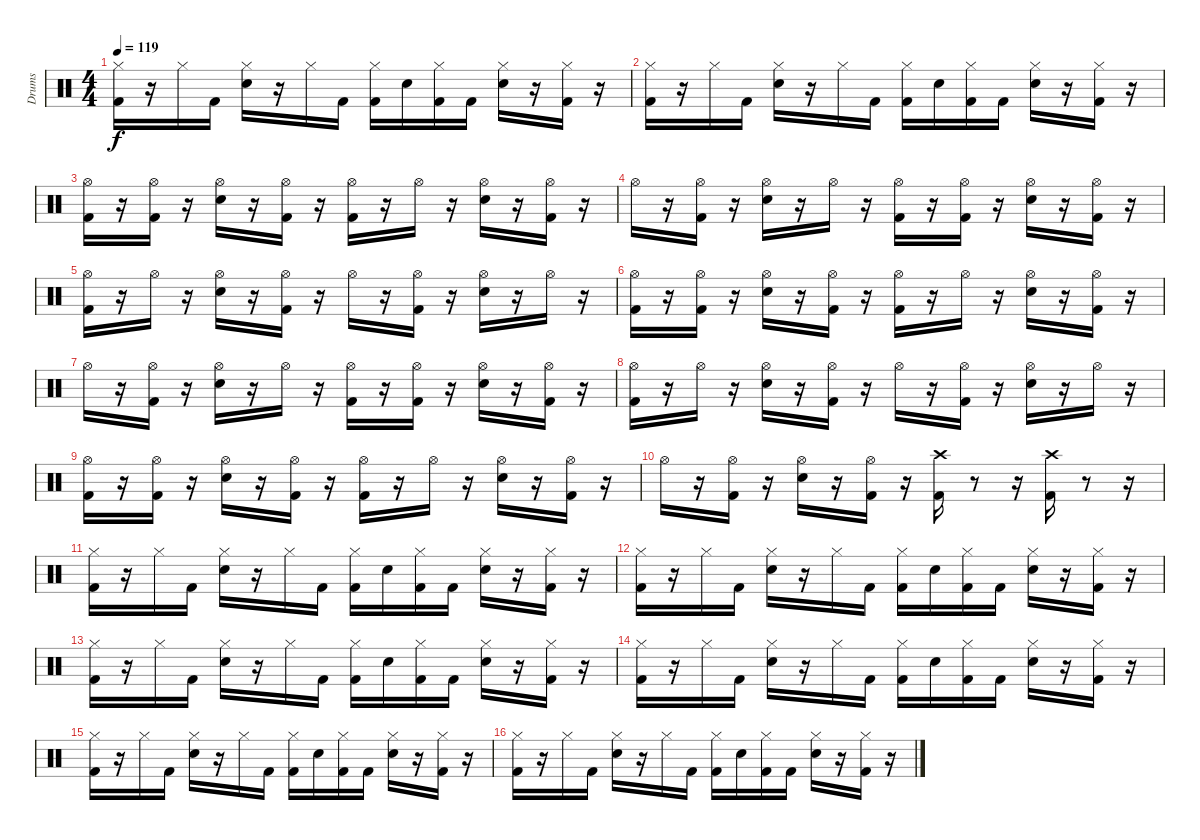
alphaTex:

\track ("Drums" "Drums") {instrument percussion}
\staff {score}
\articulation defaults
\ts (4 4)
\tempo 119
\clef neutral
\ks c
("Kick (hit) 2" "Hi-Hat (closed)").16{dy f} r.16 "Hi-Hat (closed)".16 "Kick (hit) 2".16 ("Snare (hit) 2" "Hi-Hat (closed)").16 r.16 "Hi-Hat (closed)".16 "Kick (hit) 2".16 ("Kick (hit) 2" "Hi-Hat (closed)").16 "Snare (hit) 2".16 ("Kick (hit) 2" "Hi-Hat (closed)").16 "Kick (hit) 2".16 ("Snare (hit) 2" "Hi-Hat (closed)").16 r.16 ("Kick (hit) 2" "Hi-Hat (closed)").16 r.16 |
("Kick (hit) 2" "Hi-Hat (closed)").16 r.16 "Hi-Hat (closed)".16 "Kick (hit) 2".16 ("Snare (hit) 2" "Hi-Hat (closed)").16 r.16 "Hi-Hat (closed)".16 "Kick (hit) 2".16 ("Kick (hit) 2" "Hi-Hat (closed)").16 "Snare (hit) 2".16 ("Kick (hit) 2" "Hi-Hat (closed)").16 "Kick (hit) 2".16 ("Snare (hit) 2" "Hi-Hat (closed)").16 r.16 ("Kick (hit) 2" "Hi-Hat (closed)").16 r.16 |
("Kick (hit) 2" "Hi-Hat (open)").16 r.16 ("Kick (hit) 2" "Hi-Hat (open)").16 r.16 ("Snare (hit) 2" "Hi-Hat (open)").16 r.16 ("Kick (hit) 2" "Hi-Hat (open)").16 r.16 ("Kick (hit) 2" "Hi-Hat (open)").16 r.16 "Hi-Hat (open)".16 r.16 ("Snare (hit) 2" "Hi-Hat (open)").16 r.16 ("Kick (hit) 2" "Hi-Hat (open)").16 r.16 |
"Hi-Hat (open)".16 r.16 ("Kick (hit) 2" "Hi-Hat (open)").16 r.16 ("Snare (hit) 2" "Hi-Hat (open)").16 r.16 "Hi-Hat (open)".16 r.16 ("Kick (hit) 2" "Hi-Hat (open)").16 r.16 ("Kick (hit) 2" "Hi-Hat (open)").16 r.16 ("Snare (hit) 2" "Hi-Hat (open)").16 r.16 ("Kick (hit) 2" "Hi-Hat (open)").16 r.16 |
("Kick (hit) 2" "Hi-Hat (open)").16 r.16 "Hi-Hat (open)".16 r.16 ("Snare (hit) 2" "Hi-Hat (open)").16 r.16 ("Kick (hit) 2" "Hi-Hat (open)").16 r.16 "Hi-Hat (open)".16 r.16 ("Kick (hit) 2" "Hi-Hat (open)").16 r.16 ("Snare (hit) 2" "Hi-Hat (open)").16 r.16 "Hi-Hat (open)".16 r.16 |
("Kick (hit) 2" "Hi-Hat (open)").16 r.16 ("Kick (hit) 2" "Hi-Hat (open)").16 r.16 ("Snare (hit) 2" "Hi-Hat (open)").16 r.16 ("Kick (hit) 2" "Hi-Hat (open)").16 r.16 ("Kick (hit) 2" "Hi-Hat (open)").16 r.16 "Hi-Hat (open)".16 r.16 ("Snare (hit) 2" "Hi-Hat (open)").16 r.16 ("Kick (hit) 2" "Hi-Hat (open)").16 r.16 |
"Hi-Hat (open)".16 r.16 ("Kick (hit) 2" "Hi-Hat (open)").16 r.16 ("Snare (hit) 2" "Hi-Hat (open)").16 r.16 "Hi-Hat (open)".16 r.16 ("Kick (hit) 2" "Hi-Hat (open)").16 r.16 ("Kick (hit) 2" "Hi-Hat (open)").16 r.16 ("Snare (hit) 2" "Hi-Hat (open)").16 r.16 ("Kick (hit) 2" "Hi-Hat (open)").16 r.16 |
("Kick (hit) 2" "Hi-Hat (open)").16 r.16 "Hi-Hat (open)".16 r.16 ("Snare (hit) 2" "Hi-Hat (open)").16 r.16 ("Kick (hit) 2" "Hi-Hat (open)").16 r.16 "Hi-Hat (open)".16 r.16 ("Kick (hit) 2" "Hi-Hat (open)").16 r.16 ("Snare (hit) 2" "Hi-Hat (open)").16 r.16 "Hi-Hat (open)".16 r.16 |
("Kick (hit) 2" "Hi-Hat (open)").16 r.16 ("Kick (hit) 2" "Hi-Hat (open)").16 r.16 ("Snare (hit) 2" "Hi-Hat (open)").16 r.16 ("Kick (hit) 2" "Hi-Hat (open)").16 r.16 ("Kick (hit) 2" "Hi-Hat (open)").16 r.16 "Hi-Hat (open)".16 r.16 ("Snare (hit) 2" "Hi-Hat (open)").16 r.16 ("Kick (hit) 2" "Hi-Hat (open)").16 r.16 |
"Hi-Hat (open)".16 r.16 ("Kick (hit) 2" "Hi-Hat (open)").16 r.16 ("Snare (hit) 2" "Hi-Hat (open)").16 r.16 ("Kick (hit) 2" "Hi-Hat (open)").16 r.16 ("Kick (hit) 2" "Crash high (hit)").16 r.8 r.16 ("Kick (hit) 2" "Crash high (hit)").16 r.8 r.16 |
("Kick (hit) 2" "Hi-Hat (closed)").16 r.16 "Hi-Hat (closed)".16 "Kick (hit) 2".16 ("Snare (hit) 2" "Hi-Hat (closed)").16 r.16 "Hi-Hat (closed)".16 "Kick (hit) 2".16 ("Kick (hit) 2" "Hi-Hat (closed)").16 "Snare (hit) 2".16 ("Kick (hit) 2" "Hi-Hat (closed)").16 "Kick (hit) 2".16 ("Snare (hit) 2" "Hi-Hat (closed)").16 r.16 ("Kick (hit) 2" "Hi-Hat (closed)").16 r.16 |
("Kick (hit) 2" "Hi-Hat (closed)").16 r.16 "Hi-Hat (closed)".16 "Kick (hit) 2".16 ("Snare (hit) 2" "Hi-Hat (closed)").16 r.16 "Hi-Hat (closed)".16 "Kick (hit) 2".16 ("Kick (hit) 2" "Hi-Hat (closed)").16 "Snare (hit) 2".16 ("Kick (hit) 2" "Hi-Hat (closed)").16 "Kick (hit) 2".16 ("Snare (hit) 2" "Hi-Hat (closed)").16 r.16 ("Kick (hit) 2" "Hi-Hat (closed)").16 r.16 |
("Kick (hit) 2" "Hi-Hat (closed)").16 r.16 "Hi-Hat (closed)".16 "Kick (hit) 2".16 ("Snare (hit) 2" "Hi-Hat (closed)").16 r.16 "Hi-Hat (closed)".16 "Kick (hit) 2".16 ("Kick (hit) 2" "Hi-Hat (closed)").16 "Snare (hit) 2".16 ("Kick (hit) 2" "Hi-Hat (closed)").16 "Kick (hit) 2".16 ("Snare (hit) 2" "Hi-Hat (closed)").16 r.16 ("Kick (hit) 2" "Hi-Hat (closed)").16 r.16 |
("Kick (hit) 2" "Hi-Hat (closed)").16 r.16 "Hi-Hat (closed)".16 "Kick (hit) 2".16 ("Snare (hit) 2" "Hi-Hat (closed)").16 r.16 "Hi-Hat (closed)".16 "Kick (hit) 2".16 ("Kick (hit) 2" "Hi-Hat (closed)").16 "Snare (hit) 2".16 ("Kick (hit) 2" "Hi-Hat (closed)").16 "Kick (hit) 2".16 ("Snare (hit) 2" "Hi-Hat (closed)").16 r.16 ("Kick (hit) 2" "Hi-Hat (closed)").16 r.16 |
("Kick (hit) 2" "Hi-Hat (closed)").16 r.16 "Hi-Hat (closed)".16 "Kick (hit) 2".16 ("Snare (hit) 2" "Hi-Hat (closed)").16 r.16 "Hi-Hat (closed)".16 "Kick (hit) 2".16 ("Kick (hit) 2" "Hi-Hat (closed)").16 "Snare (hit) 2".16 ("Kick (hit) 2" "Hi-Hat (closed)").16 "Kick (hit) 2".16 ("Snare (hit) 2" "Hi-Hat (closed)").16 r.16 ("Kick (hit) 2" "Hi-Hat (closed)").16 r.16 |
("Kick (hit) 2" "Hi-Hat (closed)").16 r.16 "Hi-Hat (closed)".16 "Kick (hit) 2".16 ("Snare (hit) 2" "Hi-Hat (closed)").16 r.16 "Hi-Hat (closed)".16 "Kick (hit) 2".16 ("Kick (hit) 2" "Hi-Hat (closed)").16 "Snare (hit) 2".16 ("Kick (hit) 2" "Hi-Hat (closed)").16 "Kick (hit) 2".16 ("Snare (hit) 2" "Hi-Hat (closed)").16 r.16 ("Kick (hit) 2" "Hi-Hat (closed)").16 r.16
